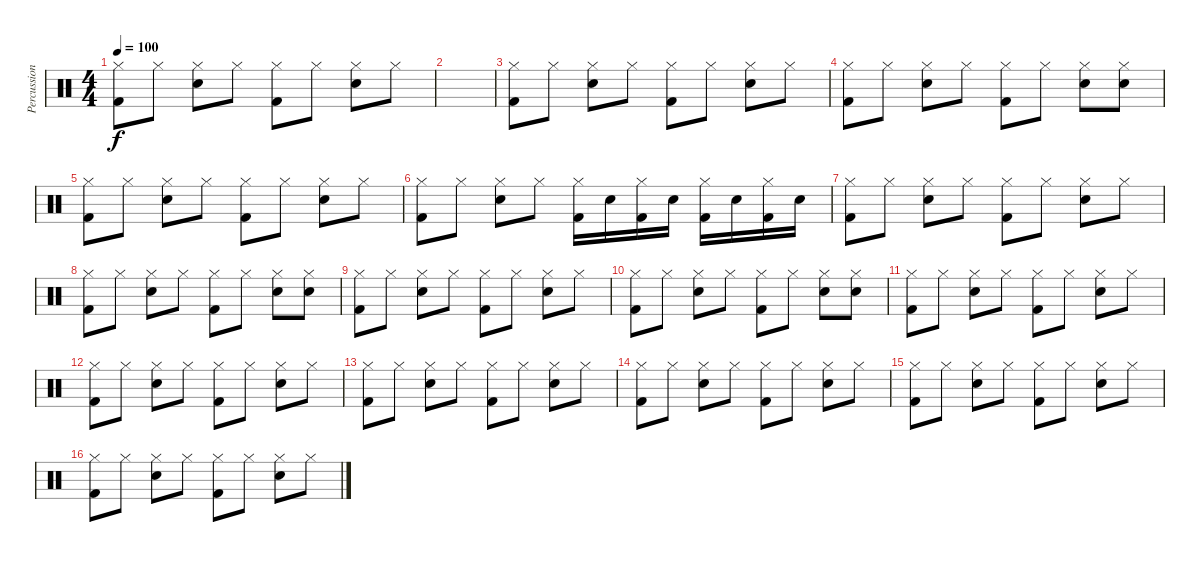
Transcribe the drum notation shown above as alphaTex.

\track ("Percussions" "Percussion") {instrument percussion}
\staff {score}
\articulation defaults
\ts (4 4)
\tempo 100
\clef neutral
\ks c
("Hi-Hat (closed)" "Kick (hit) 2").8{dy f} "Hi-Hat (closed)".8 ("Hi-Hat (closed)" "Snare (hit) 2").8 "Hi-Hat (closed)".8 ("Hi-Hat (closed)" "Kick (hit) 2").8 "Hi-Hat (closed)".8 ("Hi-Hat (closed)" "Snare (hit) 2").8 "Hi-Hat (closed)".8 |
|
("Hi-Hat (closed)" "Kick (hit) 2").8 "Hi-Hat (closed)".8 ("Hi-Hat (closed)" "Snare (hit) 2").8 "Hi-Hat (closed)".8 ("Hi-Hat (closed)" "Kick (hit) 2").8 "Hi-Hat (closed)".8 ("Hi-Hat (closed)" "Snare (hit) 2").8 "Hi-Hat (closed)".8 |
("Hi-Hat (closed)" "Kick (hit) 2").8 "Hi-Hat (closed)".8 ("Hi-Hat (closed)" "Snare (hit) 2").8 "Hi-Hat (closed)".8 ("Hi-Hat (closed)" "Kick (hit) 2").8 "Hi-Hat (closed)".8 ("Hi-Hat (closed)" "Snare (hit) 2").8 ("Hi-Hat (closed)" "Snare (hit) 2").8 |
("Hi-Hat (closed)" "Kick (hit) 2").8 "Hi-Hat (closed)".8 ("Hi-Hat (closed)" "Snare (hit) 2").8 "Hi-Hat (closed)".8 ("Hi-Hat (closed)" "Kick (hit) 2").8 "Hi-Hat (closed)".8 ("Hi-Hat (closed)" "Snare (hit) 2").8 "Hi-Hat (closed)".8 |
("Hi-Hat (closed)" "Kick (hit) 2").8 "Hi-Hat (closed)".8 ("Hi-Hat (closed)" "Snare (hit) 2").8 "Hi-Hat (closed)".8 ("Kick (hit) 2" "Hi-Hat (closed)").16 "Snare (hit) 2".16 ("Kick (hit) 2" "Hi-Hat (closed)").16 "Snare (hit) 2".16 ("Kick (hit) 2" "Hi-Hat (closed)").16 "Snare (hit) 2".16 ("Kick (hit) 2" "Hi-Hat (closed)").16 "Snare (hit) 2".16 |
("Hi-Hat (closed)" "Kick (hit) 2").8 "Hi-Hat (closed)".8 ("Hi-Hat (closed)" "Snare (hit) 2").8 "Hi-Hat (closed)".8 ("Hi-Hat (closed)" "Kick (hit) 2").8 "Hi-Hat (closed)".8 ("Hi-Hat (closed)" "Snare (hit) 2").8 "Hi-Hat (closed)".8 |
("Hi-Hat (closed)" "Kick (hit) 2").8 "Hi-Hat (closed)".8 ("Hi-Hat (closed)" "Snare (hit) 2").8 "Hi-Hat (closed)".8 ("Hi-Hat (closed)" "Kick (hit) 2").8 "Hi-Hat (closed)".8 ("Hi-Hat (closed)" "Snare (hit) 2").8 ("Hi-Hat (closed)" "Snare (hit) 2").8 |
("Hi-Hat (closed)" "Kick (hit) 2").8 "Hi-Hat (closed)".8 ("Hi-Hat (closed)" "Snare (hit) 2").8 "Hi-Hat (closed)".8 ("Hi-Hat (closed)" "Kick (hit) 2").8 "Hi-Hat (closed)".8 ("Hi-Hat (closed)" "Snare (hit) 2").8 "Hi-Hat (closed)".8 |
("Hi-Hat (closed)" "Kick (hit) 2").8 "Hi-Hat (closed)".8 ("Hi-Hat (closed)" "Snare (hit) 2").8 "Hi-Hat (closed)".8 ("Hi-Hat (closed)" "Kick (hit) 2").8 "Hi-Hat (closed)".8 ("Hi-Hat (closed)" "Snare (hit) 2").8 ("Hi-Hat (closed)" "Snare (hit) 2").8 |
("Hi-Hat (closed)" "Kick (hit) 2").8 "Hi-Hat (closed)".8 ("Hi-Hat (closed)" "Snare (hit) 2").8 "Hi-Hat (closed)".8 ("Hi-Hat (closed)" "Kick (hit) 2").8 "Hi-Hat (closed)".8 ("Hi-Hat (closed)" "Snare (hit) 2").8 "Hi-Hat (closed)".8 |
("Hi-Hat (closed)" "Kick (hit) 2").8 "Hi-Hat (closed)".8 ("Hi-Hat (closed)" "Snare (hit) 2").8 "Hi-Hat (closed)".8 ("Hi-Hat (closed)" "Kick (hit) 2").8 "Hi-Hat (closed)".8 ("Hi-Hat (closed)" "Snare (hit) 2").8 "Hi-Hat (closed)".8 |
("Hi-Hat (closed)" "Kick (hit) 2").8 "Hi-Hat (closed)".8 ("Hi-Hat (closed)" "Snare (hit) 2").8 "Hi-Hat (closed)".8 ("Hi-Hat (closed)" "Kick (hit) 2").8 "Hi-Hat (closed)".8 ("Hi-Hat (closed)" "Snare (hit) 2").8 "Hi-Hat (closed)".8 |
("Hi-Hat (closed)" "Kick (hit) 2").8 "Hi-Hat (closed)".8 ("Hi-Hat (closed)" "Snare (hit) 2").8 "Hi-Hat (closed)".8 ("Hi-Hat (closed)" "Kick (hit) 2").8 "Hi-Hat (closed)".8 ("Hi-Hat (closed)" "Snare (hit) 2").8 "Hi-Hat (closed)".8 |
("Hi-Hat (closed)" "Kick (hit) 2").8 "Hi-Hat (closed)".8 ("Hi-Hat (closed)" "Snare (hit) 2").8 "Hi-Hat (closed)".8 ("Hi-Hat (closed)" "Kick (hit) 2").8 "Hi-Hat (closed)".8 ("Hi-Hat (closed)" "Snare (hit) 2").8 "Hi-Hat (closed)".8 |
("Hi-Hat (closed)" "Kick (hit) 2").8 "Hi-Hat (closed)".8 ("Hi-Hat (closed)" "Snare (hit) 2").8 "Hi-Hat (closed)".8 ("Hi-Hat (closed)" "Kick (hit) 2").8 "Hi-Hat (closed)".8 ("Hi-Hat (closed)" "Snare (hit) 2").8 "Hi-Hat (closed)".8
